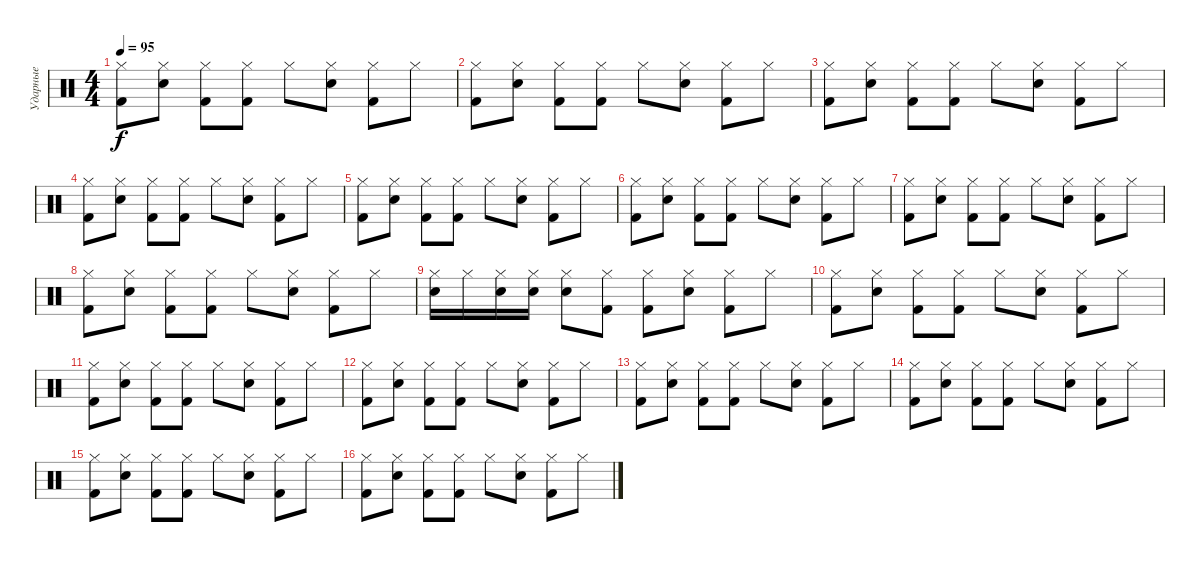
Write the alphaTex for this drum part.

\track ("Ударные" "Ударные") {instrument percussion}
\staff {score}
\articulation defaults
\ts (4 4)
\tempo 95
\clef neutral
\ks c
("Kick (hit) 2" "Hi-Hat (closed)").8{dy f} ("Electric Snare (hit)" "Hi-Hat (closed)").8 ("Kick (hit) 2" "Hi-Hat (closed)").8 ("Kick (hit) 2" "Hi-Hat (closed)").8 "Hi-Hat (closed)".8 ("Electric Snare (hit)" "Hi-Hat (closed)").8 ("Kick (hit) 2" "Hi-Hat (closed)").8 "Hi-Hat (closed)".8 |
("Kick (hit) 2" "Hi-Hat (closed)").8 ("Electric Snare (hit)" "Hi-Hat (closed)").8 ("Kick (hit) 2" "Hi-Hat (closed)").8 ("Kick (hit) 2" "Hi-Hat (closed)").8 "Hi-Hat (closed)".8 ("Electric Snare (hit)" "Hi-Hat (closed)").8 ("Kick (hit) 2" "Hi-Hat (closed)").8 "Hi-Hat (closed)".8 |
("Kick (hit) 2" "Hi-Hat (closed)").8 ("Electric Snare (hit)" "Hi-Hat (closed)").8 ("Kick (hit) 2" "Hi-Hat (closed)").8 ("Kick (hit) 2" "Hi-Hat (closed)").8 "Hi-Hat (closed)".8 ("Electric Snare (hit)" "Hi-Hat (closed)").8 ("Kick (hit) 2" "Hi-Hat (closed)").8 "Hi-Hat (closed)".8 |
("Kick (hit) 2" "Hi-Hat (closed)").8 ("Electric Snare (hit)" "Hi-Hat (closed)").8 ("Kick (hit) 2" "Hi-Hat (closed)").8 ("Kick (hit) 2" "Hi-Hat (closed)").8 "Hi-Hat (closed)".8 ("Electric Snare (hit)" "Hi-Hat (closed)").8 ("Kick (hit) 2" "Hi-Hat (closed)").8 "Hi-Hat (closed)".8 |
("Kick (hit) 2" "Hi-Hat (closed)").8 ("Electric Snare (hit)" "Hi-Hat (closed)").8 ("Kick (hit) 2" "Hi-Hat (closed)").8 ("Kick (hit) 2" "Hi-Hat (closed)").8 "Hi-Hat (closed)".8 ("Electric Snare (hit)" "Hi-Hat (closed)").8 ("Kick (hit) 2" "Hi-Hat (closed)").8 "Hi-Hat (closed)".8 |
("Kick (hit) 2" "Hi-Hat (closed)").8 ("Electric Snare (hit)" "Hi-Hat (closed)").8 ("Kick (hit) 2" "Hi-Hat (closed)").8 ("Kick (hit) 2" "Hi-Hat (closed)").8 "Hi-Hat (closed)".8 ("Electric Snare (hit)" "Hi-Hat (closed)").8 ("Kick (hit) 2" "Hi-Hat (closed)").8 "Hi-Hat (closed)".8 |
("Kick (hit) 2" "Hi-Hat (closed)").8 ("Electric Snare (hit)" "Hi-Hat (closed)").8 ("Kick (hit) 2" "Hi-Hat (closed)").8 ("Kick (hit) 2" "Hi-Hat (closed)").8 "Hi-Hat (closed)".8 ("Electric Snare (hit)" "Hi-Hat (closed)").8 ("Kick (hit) 2" "Hi-Hat (closed)").8 "Hi-Hat (closed)".8 |
("Kick (hit) 2" "Hi-Hat (closed)").8 ("Electric Snare (hit)" "Hi-Hat (closed)").8 ("Kick (hit) 2" "Hi-Hat (closed)").8 ("Kick (hit) 2" "Hi-Hat (closed)").8 "Hi-Hat (closed)".8 ("Electric Snare (hit)" "Hi-Hat (closed)").8 ("Kick (hit) 2" "Hi-Hat (closed)").8 "Hi-Hat (closed)".8 |
("Electric Snare (hit)" "Hi-Hat (closed)").16 "Hi-Hat (closed)".16 ("Electric Snare (hit)" "Hi-Hat (closed)").16 ("Electric Snare (hit)" "Hi-Hat (closed)").16 ("Electric Snare (hit)" "Hi-Hat (closed)").8 ("Kick (hit) 2" "Hi-Hat (closed)").8 ("Kick (hit) 2" "Hi-Hat (closed)").8 ("Electric Snare (hit)" "Hi-Hat (closed)").8 ("Kick (hit) 2" "Hi-Hat (closed)").8 "Hi-Hat (closed)".8 |
("Kick (hit) 2" "Hi-Hat (closed)").8 ("Electric Snare (hit)" "Hi-Hat (closed)").8 ("Kick (hit) 2" "Hi-Hat (closed)").8 ("Kick (hit) 2" "Hi-Hat (closed)").8 "Hi-Hat (closed)".8 ("Electric Snare (hit)" "Hi-Hat (closed)").8 ("Kick (hit) 2" "Hi-Hat (closed)").8 "Hi-Hat (closed)".8 |
("Kick (hit) 2" "Hi-Hat (closed)").8 ("Electric Snare (hit)" "Hi-Hat (closed)").8 ("Kick (hit) 2" "Hi-Hat (closed)").8 ("Kick (hit) 2" "Hi-Hat (closed)").8 "Hi-Hat (closed)".8 ("Electric Snare (hit)" "Hi-Hat (closed)").8 ("Kick (hit) 2" "Hi-Hat (closed)").8 "Hi-Hat (closed)".8 |
("Kick (hit) 2" "Hi-Hat (closed)").8 ("Electric Snare (hit)" "Hi-Hat (closed)").8 ("Kick (hit) 2" "Hi-Hat (closed)").8 ("Kick (hit) 2" "Hi-Hat (closed)").8 "Hi-Hat (closed)".8 ("Electric Snare (hit)" "Hi-Hat (closed)").8 ("Kick (hit) 2" "Hi-Hat (closed)").8 "Hi-Hat (closed)".8 |
("Kick (hit) 2" "Hi-Hat (closed)").8 ("Electric Snare (hit)" "Hi-Hat (closed)").8 ("Kick (hit) 2" "Hi-Hat (closed)").8 ("Kick (hit) 2" "Hi-Hat (closed)").8 "Hi-Hat (closed)".8 ("Electric Snare (hit)" "Hi-Hat (closed)").8 ("Kick (hit) 2" "Hi-Hat (closed)").8 "Hi-Hat (closed)".8 |
("Kick (hit) 2" "Hi-Hat (closed)").8 ("Electric Snare (hit)" "Hi-Hat (closed)").8 ("Kick (hit) 2" "Hi-Hat (closed)").8 ("Kick (hit) 2" "Hi-Hat (closed)").8 "Hi-Hat (closed)".8 ("Electric Snare (hit)" "Hi-Hat (closed)").8 ("Kick (hit) 2" "Hi-Hat (closed)").8 "Hi-Hat (closed)".8 |
("Kick (hit) 2" "Hi-Hat (closed)").8 ("Electric Snare (hit)" "Hi-Hat (closed)").8 ("Kick (hit) 2" "Hi-Hat (closed)").8 ("Kick (hit) 2" "Hi-Hat (closed)").8 "Hi-Hat (closed)".8 ("Electric Snare (hit)" "Hi-Hat (closed)").8 ("Kick (hit) 2" "Hi-Hat (closed)").8 "Hi-Hat (closed)".8 |
("Kick (hit) 2" "Hi-Hat (closed)").8 ("Electric Snare (hit)" "Hi-Hat (closed)").8 ("Kick (hit) 2" "Hi-Hat (closed)").8 ("Kick (hit) 2" "Hi-Hat (closed)").8 "Hi-Hat (closed)".8 ("Electric Snare (hit)" "Hi-Hat (closed)").8 ("Kick (hit) 2" "Hi-Hat (closed)").8 "Hi-Hat (closed)".8
